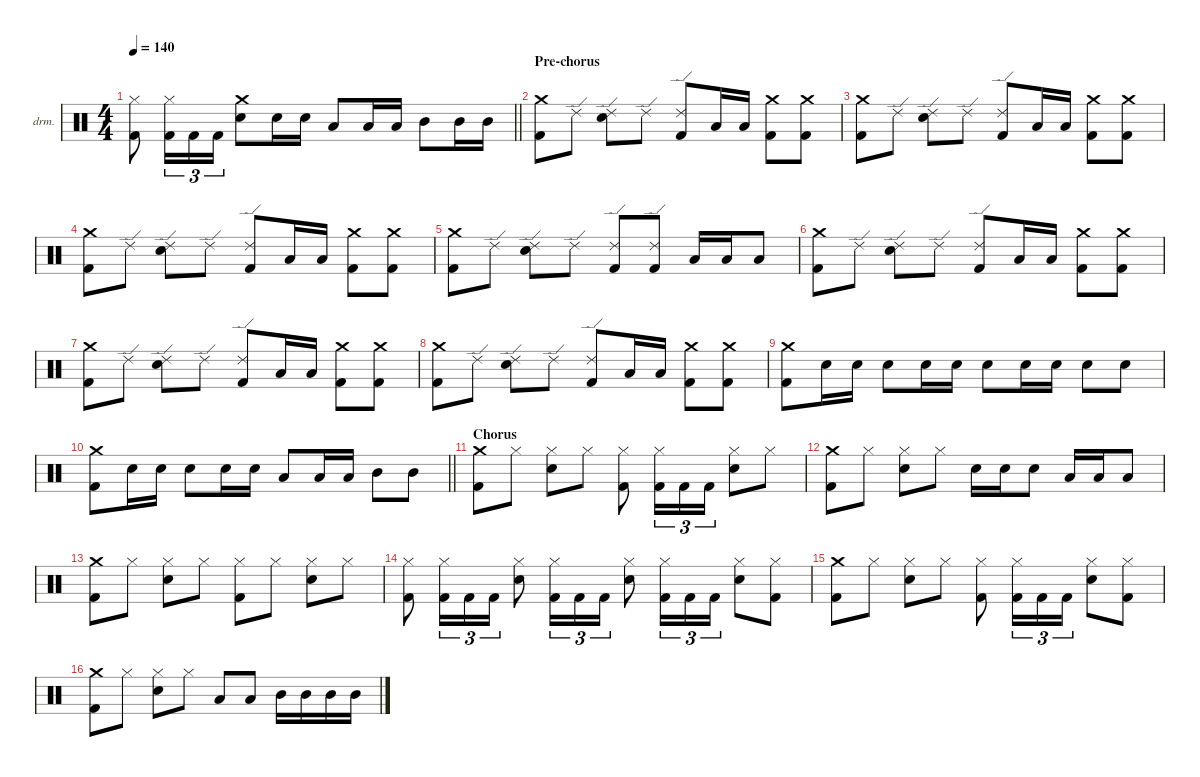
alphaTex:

\defaultSystemsLayout 4
\hideDynamics
\bracketExtendMode nobrackets
\firstSystemTrackNameOrientation horizontal
\otherSystemsTrackNameOrientation horizontal
\track ("Drums" "drm.") {instrument percussion}
\staff {score}
\articulation defaults
\ts (4 4)
\tempo 140
\clef neutral
\barLineRight lightlight
\ks c
("Hi-Hat (closed)" "Kick (hit) 2").8{dy f} ("Hi-Hat (closed)" "Kick (hit) 2").16{tu (3 2)} "Kick (hit) 2".16{tu (3 2)} "Kick (hit) 2".16{tu (3 2)} ("Snare (hit) 2" "Crash medium (hit)").8 "Snare (hit) 2".16 "Snare (hit) 2".16 "Low Tom (hit)".8 "Low Tom (hit)".16 "Low Tom (hit)".16 "Mid Tom (hit)".8 "Mid Tom (hit)".16 "Mid Tom (hit)".16 |
\section ("" "Pre-chorus")
("Crash medium (hit)" "Kick (hit) 2").8 "Ride (edge) 2".8 ("Snare (hit) 2" "Ride (edge) 2").8 "Ride (edge) 2".8 ("Ride (edge) 2" "Kick (hit) 2").8 "Low Tom (hit)".16 "Low Tom (hit)".16 ("Crash medium (hit)" "Kick (hit) 2").8 ("Crash medium (hit)" "Kick (hit) 2").8 |
("Crash medium (hit)" "Kick (hit) 2").8 "Ride (edge) 2".8 ("Snare (hit) 2" "Ride (edge) 2").8 "Ride (edge) 2".8 ("Ride (edge) 2" "Kick (hit) 2").8 "Low Tom (hit)".16 "Low Tom (hit)".16 ("Crash medium (hit)" "Kick (hit) 2").8 ("Crash medium (hit)" "Kick (hit) 2").8 |
("Crash medium (hit)" "Kick (hit) 2").8 "Ride (edge) 2".8 ("Snare (hit) 2" "Ride (edge) 2").8 "Ride (edge) 2".8 ("Ride (edge) 2" "Kick (hit) 2").8 "Low Tom (hit)".16 "Low Tom (hit)".16 ("Crash medium (hit)" "Kick (hit) 2").8 ("Crash medium (hit)" "Kick (hit) 2").8 |
("Crash medium (hit)" "Kick (hit) 2").8 "Ride (edge) 2".8 ("Snare (hit) 2" "Ride (edge) 2").8 "Ride (edge) 2".8 ("Kick (hit) 2" "Ride (edge) 2").8 ("Ride (edge) 2" "Kick (hit) 2").8 "Low Tom (hit)".16 "Low Tom (hit)".16 "Low Tom (hit)".8 |
("Crash medium (hit)" "Kick (hit) 2").8 "Ride (edge) 2".8 ("Snare (hit) 2" "Ride (edge) 2").8 "Ride (edge) 2".8 ("Ride (edge) 2" "Kick (hit) 2").8 "Low Tom (hit)".16 "Low Tom (hit)".16 ("Crash medium (hit)" "Kick (hit) 2").8 ("Crash medium (hit)" "Kick (hit) 2").8 |
("Crash medium (hit)" "Kick (hit) 2").8 "Ride (edge) 2".8 ("Snare (hit) 2" "Ride (edge) 2").8 "Ride (edge) 2".8 ("Ride (edge) 2" "Kick (hit) 2").8 "Low Tom (hit)".16 "Low Tom (hit)".16 ("Crash medium (hit)" "Kick (hit) 2").8 ("Crash medium (hit)" "Kick (hit) 2").8 |
("Crash medium (hit)" "Kick (hit) 2").8 "Ride (edge) 2".8 ("Snare (hit) 2" "Ride (edge) 2").8 "Ride (edge) 2".8 ("Ride (edge) 2" "Kick (hit) 2").8 "Low Tom (hit)".16 "Low Tom (hit)".16 ("Crash medium (hit)" "Kick (hit) 2").8 ("Crash medium (hit)" "Kick (hit) 2").8 |
("Kick (hit) 2" "Crash medium (hit)").8 "Snare (hit) 2".16 "Snare (hit) 2".16 "Snare (hit) 2".8 "Snare (hit) 2".16 "Snare (hit) 2".16 "Snare (hit) 2".8 "Snare (hit) 2".16 "Snare (hit) 2".16 "Snare (hit) 2".8 "Snare (hit) 2".8 |
\barLineRight lightlight
("Crash medium (hit)" "Kick (hit) 2").8 "Snare (hit) 2".16 "Snare (hit) 2".16 "Snare (hit) 2".8 "Snare (hit) 2".16 "Snare (hit) 2".16 "Low Tom (hit)".8 "Low Tom (hit)".16 "Low Tom (hit)".16 "Mid Tom (hit)".8 "Mid Tom (hit)".8 |
\section ("" "Chorus")
("Crash medium (hit)" "Kick (hit) 2").8 "Hi-Hat (closed)".8 ("Snare (hit) 2" "Hi-Hat (closed)").8 "Hi-Hat (closed)".8 ("Kick (hit) 2" "Hi-Hat (closed)").8 ("Kick (hit) 2" "Hi-Hat (closed)").16{tu (3 2)} "Kick (hit) 2".16{tu (3 2)} "Kick (hit) 2".16{tu (3 2)} ("Snare (hit) 2" "Hi-Hat (closed)").8 "Hi-Hat (closed)".8 |
("Kick (hit) 2" "Crash medium (hit)").8 "Hi-Hat (closed)".8 ("Snare (hit) 2" "Hi-Hat (closed)").8 "Hi-Hat (closed)".8 "Snare (hit) 2".16 "Snare (hit) 2".16 "Snare (hit) 2".8 "Low Tom (hit)".16 "Low Tom (hit)".16 "Low Tom (hit)".8 |
("Crash medium (hit)" "Kick (hit) 2").8 "Hi-Hat (closed)".8 ("Snare (hit) 2" "Hi-Hat (closed)").8 "Hi-Hat (closed)".8 ("Hi-Hat (closed)" "Kick (hit) 2").8 "Hi-Hat (closed)".8 ("Snare (hit) 2" "Hi-Hat (closed)").8 "Hi-Hat (closed)".8 |
("Kick (hit) 2" "Hi-Hat (closed)").8 ("Kick (hit) 2" "Hi-Hat (closed)").16{tu (3 2)} "Kick (hit) 2".16{tu (3 2)} "Kick (hit) 2".16{tu (3 2)} ("Snare (hit) 2" "Hi-Hat (closed)").8 ("Kick (hit) 2" "Hi-Hat (closed)").16{tu (3 2)} "Kick (hit) 2".16{tu (3 2)} "Kick (hit) 2".16{tu (3 2)} ("Snare (hit) 2" "Hi-Hat (closed)").8 ("Kick (hit) 2" "Hi-Hat (closed)").16{tu (3 2)} "Kick (hit) 2".16{tu (3 2)} "Kick (hit) 2".16{tu (3 2)} ("Snare (hit) 2" "Hi-Hat (closed)").8 ("Kick (hit) 2" "Hi-Hat (closed)").8 |
("Crash medium (hit)" "Kick (hit) 2").8 "Hi-Hat (closed)".8 ("Snare (hit) 2" "Hi-Hat (closed)").8 "Hi-Hat (closed)".8 ("Hi-Hat (closed)" "Kick (hit) 2").8 ("Hi-Hat (closed)" "Kick (hit) 2").16{tu (3 2)} "Kick (hit) 2".16{tu (3 2)} "Kick (hit) 2".16{tu (3 2)} ("Snare (hit) 2" "Hi-Hat (closed)").8 ("Hi-Hat (closed)" "Kick (hit) 2").8 |
("Kick (hit) 2" "Crash medium (hit)").8 "Hi-Hat (closed)".8 ("Snare (hit) 2" "Hi-Hat (closed)").8 "Hi-Hat (closed)".8 "Low Tom (hit)".8 "Low Tom (hit)".8 "Mid Tom (hit)".16 "Mid Tom (hit)".16 "Mid Tom (hit)".16 "Mid Tom (hit)".16
